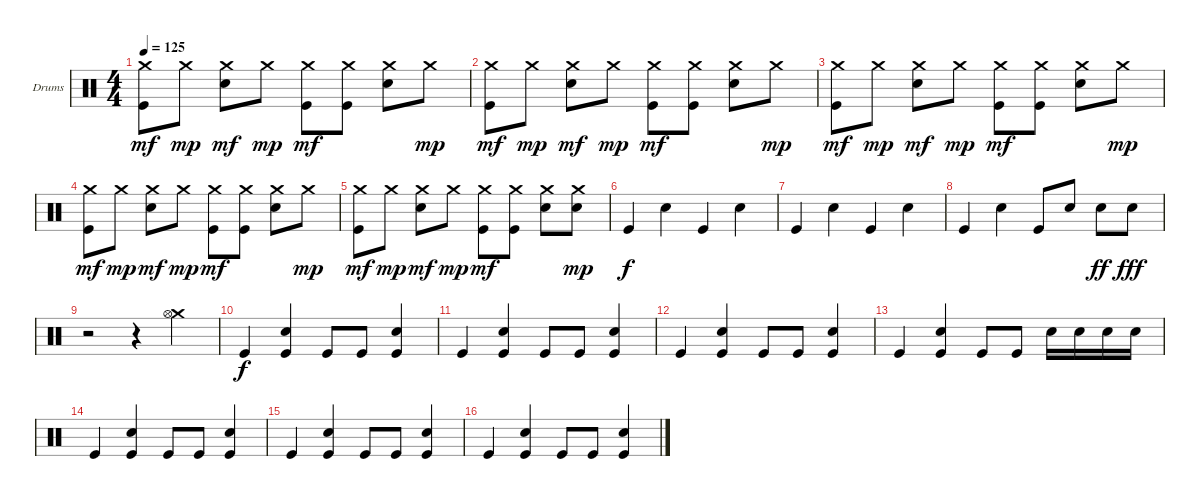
\bracketExtendMode groupsimilarinstruments
\firstSystemTrackNameOrientation horizontal
\otherSystemsTrackNameOrientation horizontal
\track ("Rian Dawson" "Drums") {instrument percussion}
\staff {score}
\articulation defaults
\ts (4 4)
\tempo 125
\clef neutral
\ks c
("Crash medium (hit)" "Kick (hit)").8{dy mf} "Crash medium (hit)".8{dy mp} ("Crash medium (hit)" "Snare (hit) 2").8{dy mf} "Crash medium (hit)".8{dy mp} ("Crash medium (hit)" "Kick (hit)").8{dy mf} ("Crash medium (hit)" "Kick (hit)").8 ("Crash medium (hit)" "Snare (hit) 2").8 "Crash medium (hit)".8{dy mp} |
("Crash medium (hit)" "Kick (hit)").8{dy mf} "Crash medium (hit)".8{dy mp} ("Crash medium (hit)" "Snare (hit) 2").8{dy mf} "Crash medium (hit)".8{dy mp} ("Crash medium (hit)" "Kick (hit)").8{dy mf} ("Crash medium (hit)" "Kick (hit)").8 ("Crash medium (hit)" "Snare (hit) 2").8 "Crash medium (hit)".8{dy mp} |
("Crash medium (hit)" "Kick (hit)").8{dy mf} "Crash medium (hit)".8{dy mp} ("Crash medium (hit)" "Snare (hit) 2").8{dy mf} "Crash medium (hit)".8{dy mp} ("Crash medium (hit)" "Kick (hit)").8{dy mf} ("Crash medium (hit)" "Kick (hit)").8 ("Crash medium (hit)" "Snare (hit) 2").8 "Crash medium (hit)".8{dy mp} |
("Crash medium (hit)" "Kick (hit)").8{dy mf} "Crash medium (hit)".8{dy mp} ("Crash medium (hit)" "Snare (hit) 2").8{dy mf} "Crash medium (hit)".8{dy mp} ("Crash medium (hit)" "Kick (hit)").8{dy mf} ("Crash medium (hit)" "Kick (hit)").8 ("Crash medium (hit)" "Snare (hit) 2").8 "Crash medium (hit)".8{dy mp} |
("Crash medium (hit)" "Kick (hit)").8{dy mf} "Crash medium (hit)".8{dy mp} ("Crash medium (hit)" "Snare (hit) 2").8{dy mf} "Crash medium (hit)".8{dy mp} ("Crash medium (hit)" "Kick (hit)").8{dy mf} ("Crash medium (hit)" "Kick (hit)").8 ("Crash medium (hit)" "Snare (hit) 2").8 ("Crash medium (hit)" "Snare (hit) 2").8{dy mp} |
"Kick (hit)".4{dy f} "Snare (hit) 2".4 "Kick (hit)".4 "Snare (hit) 2".4 |
"Kick (hit)".4 "Snare (hit) 2".4 "Kick (hit)".4 "Snare (hit) 2".4 |
"Kick (hit)".4 "Snare (hit) 2".4 "Kick (hit)".8 "Snare (hit) 2".8 "Snare (hit) 2".8{dy ff} "Snare (hit) 2".8{dy fff} |
r.2 r.4 ("Crash medium (hit)" "Hi-Hat (open)").4 |
"Kick (hit)".4{dy f} ("Snare (hit) 2" "Kick (hit)").4 "Kick (hit)".8 "Kick (hit)".8 ("Snare (hit) 2" "Kick (hit)").4 |
"Kick (hit)".4 ("Snare (hit) 2" "Kick (hit)").4 "Kick (hit)".8 "Kick (hit)".8 ("Snare (hit) 2" "Kick (hit)").4 |
"Kick (hit)".4 ("Snare (hit) 2" "Kick (hit)").4 "Kick (hit)".8 "Kick (hit)".8 ("Snare (hit) 2" "Kick (hit)").4 |
"Kick (hit)".4 ("Snare (hit) 2" "Kick (hit)").4 "Kick (hit)".8 "Kick (hit)".8 "Snare (hit) 2".16 "Snare (hit) 2".16 "Snare (hit) 2".16 "Snare (hit) 2".16 |
"Kick (hit)".4 ("Snare (hit) 2" "Kick (hit)").4 "Kick (hit)".8 "Kick (hit)".8 ("Snare (hit) 2" "Kick (hit)").4 |
"Kick (hit)".4 ("Snare (hit) 2" "Kick (hit)").4 "Kick (hit)".8 "Kick (hit)".8 ("Snare (hit) 2" "Kick (hit)").4 |
"Kick (hit)".4 ("Snare (hit) 2" "Kick (hit)").4 "Kick (hit)".8 "Kick (hit)".8 ("Snare (hit) 2" "Kick (hit)").4
